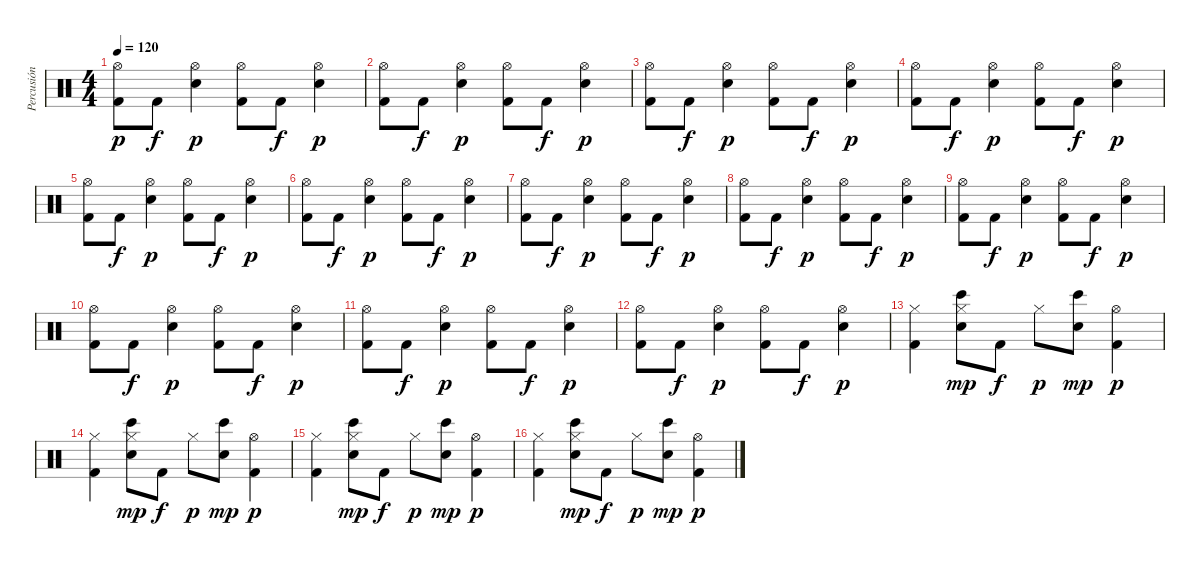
\track ("Percusión" "Percusión") {instrument percussion}
\staff {score}
\articulation defaults
\ts (4 4)
\tempo 120
\clef neutral
\ks c
("Kick (hit) 2" "Hi-Hat (open)").8{dy p} "Kick (hit) 2".8{dy f} ("Snare (hit) 2" "Hi-Hat (open)").4{dy p} ("Kick (hit) 2" "Hi-Hat (open)").8 "Kick (hit) 2".8{dy f} ("Snare (hit) 2" "Hi-Hat (open)").4{dy p} |
("Kick (hit) 2" "Hi-Hat (open)").8 "Kick (hit) 2".8{dy f} ("Snare (hit) 2" "Hi-Hat (open)").4{dy p} ("Kick (hit) 2" "Hi-Hat (open)").8 "Kick (hit) 2".8{dy f} ("Snare (hit) 2" "Hi-Hat (open)").4{dy p} |
("Kick (hit) 2" "Hi-Hat (open)").8 "Kick (hit) 2".8{dy f} ("Snare (hit) 2" "Hi-Hat (open)").4{dy p} ("Kick (hit) 2" "Hi-Hat (open)").8 "Kick (hit) 2".8{dy f} ("Snare (hit) 2" "Hi-Hat (open)").4{dy p} |
("Kick (hit) 2" "Hi-Hat (open)").8 "Kick (hit) 2".8{dy f} ("Snare (hit) 2" "Hi-Hat (open)").4{dy p} ("Kick (hit) 2" "Hi-Hat (open)").8 "Kick (hit) 2".8{dy f} ("Snare (hit) 2" "Hi-Hat (open)").4{dy p} |
("Kick (hit) 2" "Hi-Hat (open)").8 "Kick (hit) 2".8{dy f} ("Snare (hit) 2" "Hi-Hat (open)").4{dy p} ("Kick (hit) 2" "Hi-Hat (open)").8 "Kick (hit) 2".8{dy f} ("Snare (hit) 2" "Hi-Hat (open)").4{dy p} |
("Kick (hit) 2" "Hi-Hat (open)").8 "Kick (hit) 2".8{dy f} ("Snare (hit) 2" "Hi-Hat (open)").4{dy p} ("Kick (hit) 2" "Hi-Hat (open)").8 "Kick (hit) 2".8{dy f} ("Snare (hit) 2" "Hi-Hat (open)").4{dy p} |
("Kick (hit) 2" "Hi-Hat (open)").8 "Kick (hit) 2".8{dy f} ("Snare (hit) 2" "Hi-Hat (open)").4{dy p} ("Kick (hit) 2" "Hi-Hat (open)").8 "Kick (hit) 2".8{dy f} ("Snare (hit) 2" "Hi-Hat (open)").4{dy p} |
("Kick (hit) 2" "Hi-Hat (open)").8 "Kick (hit) 2".8{dy f} ("Snare (hit) 2" "Hi-Hat (open)").4{dy p} ("Kick (hit) 2" "Hi-Hat (open)").8 "Kick (hit) 2".8{dy f} ("Snare (hit) 2" "Hi-Hat (open)").4{dy p} |
("Kick (hit) 2" "Hi-Hat (open)").8 "Kick (hit) 2".8{dy f} ("Snare (hit) 2" "Hi-Hat (open)").4{dy p} ("Kick (hit) 2" "Hi-Hat (open)").8 "Kick (hit) 2".8{dy f} ("Snare (hit) 2" "Hi-Hat (open)").4{dy p} |
("Kick (hit) 2" "Hi-Hat (open)").8 "Kick (hit) 2".8{dy f} ("Snare (hit) 2" "Hi-Hat (open)").4{dy p} ("Kick (hit) 2" "Hi-Hat (open)").8 "Kick (hit) 2".8{dy f} ("Snare (hit) 2" "Hi-Hat (open)").4{dy p} |
("Kick (hit) 2" "Hi-Hat (open)").8 "Kick (hit) 2".8{dy f} ("Snare (hit) 2" "Hi-Hat (open)").4{dy p} ("Kick (hit) 2" "Hi-Hat (open)").8 "Kick (hit) 2".8{dy f} ("Snare (hit) 2" "Hi-Hat (open)").4{dy p} |
("Kick (hit) 2" "Hi-Hat (open)").8 "Kick (hit) 2".8{dy f} ("Snare (hit) 2" "Hi-Hat (open)").4{dy p} ("Kick (hit) 2" "Hi-Hat (open)").8 "Kick (hit) 2".8{dy f} ("Snare (hit) 2" "Hi-Hat (open)").4{dy p} |
("Kick (hit) 2" "Hi-Hat (closed)").4 ("Electric Snare (hit)" "Hi-Hat (closed)" "Bongo High (hit)").8{dy mp} "Kick (hit) 2".8{dy f} "Hi-Hat (closed)".8{dy p} ("Electric Snare (hit)" "Bongo High (hit)").8{dy mp} ("Kick (hit) 2" "Hi-Hat (open)").4{dy p} |
("Kick (hit) 2" "Hi-Hat (closed)").4 ("Electric Snare (hit)" "Hi-Hat (closed)" "Bongo High (hit)").8{dy mp} "Kick (hit) 2".8{dy f} "Hi-Hat (closed)".8{dy p} ("Electric Snare (hit)" "Bongo High (hit)").8{dy mp} ("Kick (hit) 2" "Hi-Hat (open)").4{dy p} |
("Kick (hit) 2" "Hi-Hat (closed)").4 ("Electric Snare (hit)" "Hi-Hat (closed)" "Bongo High (hit)").8{dy mp} "Kick (hit) 2".8{dy f} "Hi-Hat (closed)".8{dy p} ("Electric Snare (hit)" "Bongo High (hit)").8{dy mp} ("Kick (hit) 2" "Hi-Hat (open)").4{dy p} |
("Kick (hit) 2" "Hi-Hat (closed)").4 ("Electric Snare (hit)" "Hi-Hat (closed)" "Bongo High (hit)").8{dy mp} "Kick (hit) 2".8{dy f} "Hi-Hat (closed)".8{dy p} ("Electric Snare (hit)" "Bongo High (hit)").8{dy mp} ("Kick (hit) 2" "Hi-Hat (open)").4{dy p}
